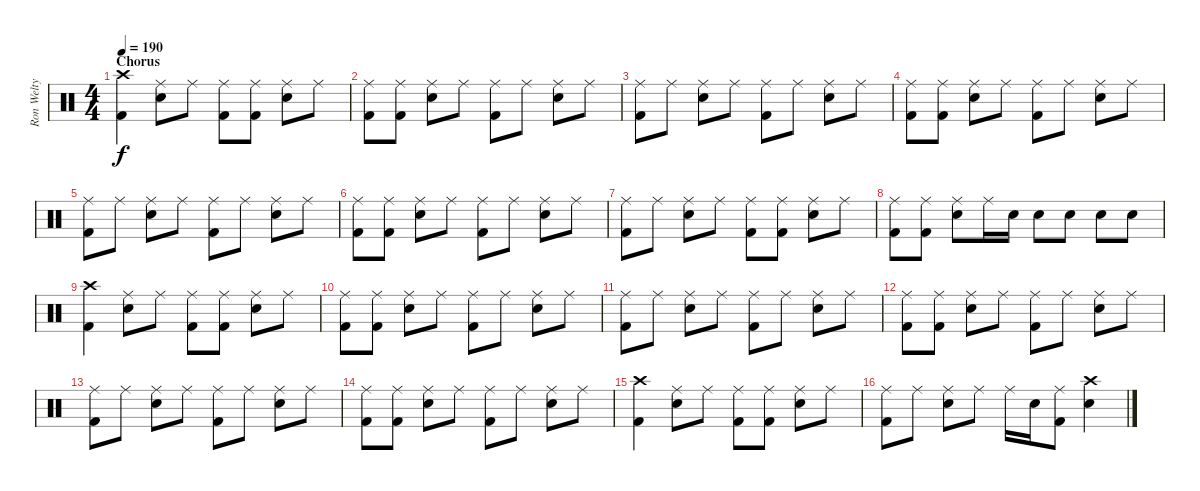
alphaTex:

\track ("Ron Welty" "Ron Welty") {instrument percussion}
\staff {score}
\articulation defaults
\ts (4 4)
\section ("" "Chorus")
\tempo 190
\clef neutral
\ks c
("Crash high (hit)" "Kick (hit) 2").4{dy f} ("Ride (middle)" "Electric Snare (hit)").8 "Ride (middle)".8 ("Ride (middle)" "Kick (hit) 2").8 ("Ride (middle)" "Kick (hit) 2").8 ("Ride (middle)" "Electric Snare (hit)").8 "Ride (middle)".8 |
("Ride (middle)" "Kick (hit) 2").8 ("Ride (middle)" "Kick (hit) 2").8 ("Ride (middle)" "Electric Snare (hit)").8 "Ride (middle)".8 ("Ride (middle)" "Kick (hit) 2").8 "Ride (middle)".8 ("Ride (middle)" "Electric Snare (hit)").8 "Ride (middle)".8 |
("Ride (middle)" "Kick (hit) 2").8 "Ride (middle)".8 ("Ride (middle)" "Electric Snare (hit)").8 "Ride (middle)".8 ("Ride (middle)" "Kick (hit) 2").8 "Ride (middle)".8 ("Ride (middle)" "Electric Snare (hit)").8 "Ride (middle)".8 |
("Ride (middle)" "Kick (hit) 2").8 ("Ride (middle)" "Kick (hit) 2").8 ("Ride (middle)" "Electric Snare (hit)").8 "Ride (middle)".8 ("Ride (middle)" "Kick (hit) 2").8 "Ride (middle)".8 ("Ride (middle)" "Electric Snare (hit)").8 "Ride (middle)".8 |
("Ride (middle)" "Kick (hit) 2").8 "Ride (middle)".8 ("Ride (middle)" "Electric Snare (hit)").8 "Ride (middle)".8 ("Ride (middle)" "Kick (hit) 2").8 "Ride (middle)".8 ("Ride (middle)" "Electric Snare (hit)").8 "Ride (middle)".8 |
("Ride (middle)" "Kick (hit) 2").8 ("Ride (middle)" "Kick (hit) 2").8 ("Ride (middle)" "Electric Snare (hit)").8 "Ride (middle)".8 ("Ride (middle)" "Kick (hit) 2").8 "Ride (middle)".8 ("Ride (middle)" "Electric Snare (hit)").8 "Ride (middle)".8 |
("Ride (middle)" "Kick (hit) 2").8 "Ride (middle)".8 ("Ride (middle)" "Electric Snare (hit)").8 "Ride (middle)".8 ("Ride (middle)" "Kick (hit) 2").8 ("Ride (middle)" "Kick (hit) 2").8 ("Ride (middle)" "Electric Snare (hit)").8 "Ride (middle)".8 |
("Ride (middle)" "Kick (hit) 2").8 ("Ride (middle)" "Kick (hit) 2").8 ("Ride (middle)" "Electric Snare (hit)").8 "Ride (middle)".16 "Electric Snare (hit)".16 "Electric Snare (hit)".8 "Electric Snare (hit)".8 "Electric Snare (hit)".8 "Electric Snare (hit)".8 |
("Crash high (hit)" "Kick (hit) 2").4 ("Ride (middle)" "Electric Snare (hit)").8 "Ride (middle)".8 ("Ride (middle)" "Kick (hit) 2").8 ("Ride (middle)" "Kick (hit) 2").8 ("Ride (middle)" "Electric Snare (hit)").8 "Ride (middle)".8 |
("Ride (middle)" "Kick (hit) 2").8 ("Ride (middle)" "Kick (hit) 2").8 ("Ride (middle)" "Electric Snare (hit)").8 "Ride (middle)".8 ("Ride (middle)" "Kick (hit) 2").8 "Ride (middle)".8 ("Ride (middle)" "Electric Snare (hit)").8 "Ride (middle)".8 |
("Ride (middle)" "Kick (hit) 2").8 "Ride (middle)".8 ("Ride (middle)" "Electric Snare (hit)").8 "Ride (middle)".8 ("Ride (middle)" "Kick (hit) 2").8 "Ride (middle)".8 ("Ride (middle)" "Electric Snare (hit)").8 "Ride (middle)".8 |
("Ride (middle)" "Kick (hit) 2").8 ("Ride (middle)" "Kick (hit) 2").8 ("Ride (middle)" "Electric Snare (hit)").8 "Ride (middle)".8 ("Ride (middle)" "Kick (hit) 2").8 "Ride (middle)".8 ("Ride (middle)" "Electric Snare (hit)").8 "Ride (middle)".8 |
("Ride (middle)" "Kick (hit) 2").8 "Ride (middle)".8 ("Ride (middle)" "Electric Snare (hit)").8 "Ride (middle)".8 ("Ride (middle)" "Kick (hit) 2").8 "Ride (middle)".8 ("Ride (middle)" "Electric Snare (hit)").8 "Ride (middle)".8 |
("Ride (middle)" "Kick (hit) 2").8 ("Ride (middle)" "Kick (hit) 2").8 ("Ride (middle)" "Electric Snare (hit)").8 "Ride (middle)".8 ("Ride (middle)" "Kick (hit) 2").8 "Ride (middle)".8 ("Ride (middle)" "Electric Snare (hit)").8 "Ride (middle)".8 |
("Crash high (hit)" "Kick (hit) 2").4 ("Ride (middle)" "Electric Snare (hit)").8 "Ride (middle)".8 ("Ride (middle)" "Kick (hit) 2").8 ("Ride (middle)" "Kick (hit) 2").8 ("Ride (middle)" "Electric Snare (hit)").8 "Ride (middle)".8 |
("Ride (middle)" "Kick (hit) 2").8 "Ride (middle)".8 ("Ride (middle)" "Electric Snare (hit)").8 "Ride (middle)".8 "Ride (middle)".16 "Electric Snare (hit)".16 ("Ride (middle)" "Kick (hit) 2").8 ("Crash high (hit)" "Electric Snare (hit)").4
